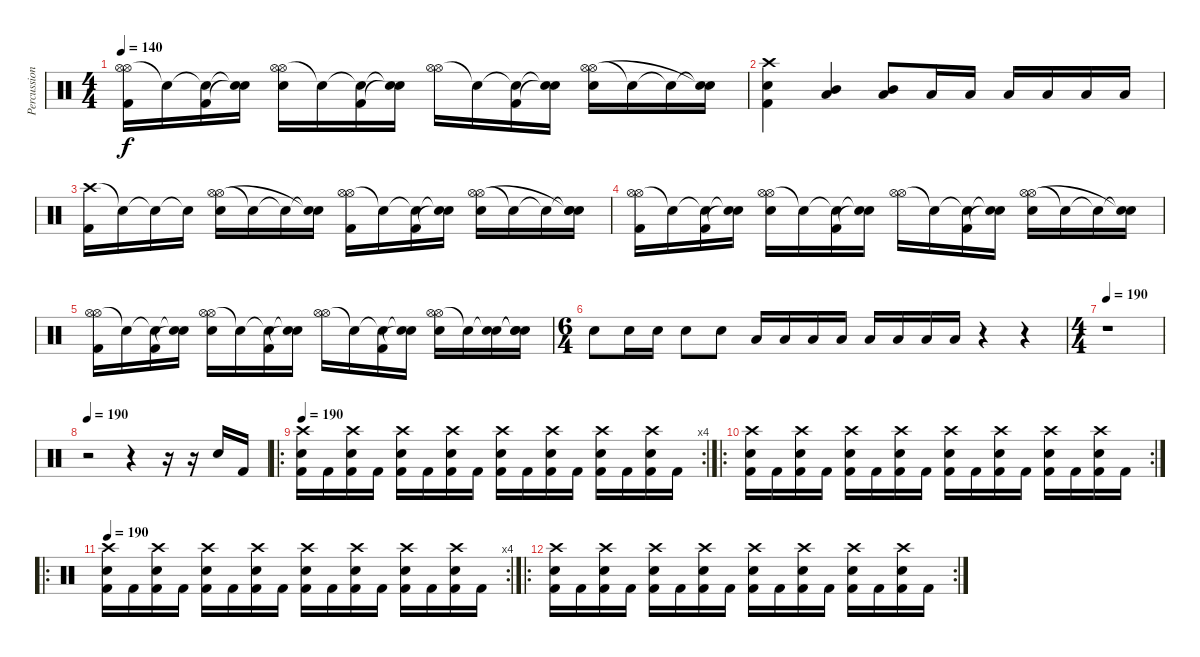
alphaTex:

\track ("Percussion" "Percussion") {instrument percussion}
\staff {score}
\articulation defaults
\ts (4 4)
\tempo 140
\clef neutral
\ks c
("Hi-Hat (open)" "Hi-Hat (open)" "Kick (hit) 2").16{dy f} "Snare (hit)"{t}.16 ("Snare (hit)"{t} "Kick (hit) 2").16 ("Snare (hit)"{t} "Snare (hit)"{t}).16 ("Hi-Hat (open)" "Hi-Hat (open)" "Electric Snare (hit)").16 "Snare (hit)"{t}.16 ("Snare (hit)"{t} "Kick (hit) 2").16 ("Snare (hit)"{t} "Snare (hit)"{t}).16 ("Hi-Hat (open)" "Hi-Hat (open)").16 "Snare (hit)"{t}.16 ("Snare (hit)"{t} "Kick (hit) 2").16 ("Snare (hit)"{t} "Snare (hit)"{t}).16 ("Hi-Hat (open)" "Hi-Hat (open)" "Electric Snare (hit)").16 "Snare (hit)"{t}.16 "Snare (hit)"{t}.16 ("Snare (hit)"{t} "Snare (hit)"{t}).16 |
("Crash high (hit)" "Electric Snare (hit)" "Kick (hit) 2").4 ("Mid Tom (hit)" "Low Tom (hit)").4 ("Mid Tom (hit)" "Low Tom (hit)").8 "Low Floor Tom (hit)".16 "Low Floor Tom (hit)".16 "Low Floor Tom (hit)".16 "Low Floor Tom (hit)".16 "Low Floor Tom (hit)".16 "Low Floor Tom (hit)".16 |
("Crash high (hit)" "Kick (hit) 2").16 "Snare (hit)"{t}.16 "Snare (hit)"{t}.16 "Snare (hit)"{t}.16 ("Hi-Hat (open)" "Hi-Hat (open)" "Electric Snare (hit)").16 "Snare (hit)"{t}.16 "Snare (hit)"{t}.16 ("Snare (hit)"{t} "Snare (hit)"{t}).16 ("Hi-Hat (open)" "Hi-Hat (open)" "Kick (hit) 2").16 "Snare (hit)"{t}.16 ("Snare (hit)"{t} "Kick (hit) 2").16 ("Snare (hit)"{t} "Snare (hit)"{t}).16 ("Hi-Hat (open)" "Hi-Hat (open)" "Electric Snare (hit)").16 "Snare (hit)"{t}.16 "Snare (hit)"{t}.16 ("Snare (hit)"{t} "Snare (hit)"{t} "Electric Snare (hit)").16 |
("Hi-Hat (open)" "Hi-Hat (open)" "Kick (hit) 2").16 "Snare (hit)"{t}.16 ("Snare (hit)"{t} "Kick (hit) 2").16 ("Snare (hit)"{t} "Snare (hit)"{t}).16 ("Hi-Hat (open)" "Hi-Hat (open)" "Electric Snare (hit)").16 "Snare (hit)"{t}.16 ("Snare (hit)"{t} "Kick (hit) 2").16 ("Snare (hit)"{t} "Snare (hit)"{t}).16 ("Hi-Hat (open)" "Hi-Hat (open)").16 "Snare (hit)"{t}.16 ("Snare (hit)"{t} "Kick (hit) 2").16 ("Snare (hit)"{t} "Snare (hit)"{t}).16 ("Hi-Hat (open)" "Hi-Hat (open)" "Electric Snare (hit)").16 "Snare (hit)"{t}.16 "Snare (hit)"{t}.16 ("Snare (hit)"{t} "Snare (hit)"{t}).16 |
("Hi-Hat (open)" "Hi-Hat (open)" "Kick (hit) 2").16 "Snare (hit)"{t}.16 ("Snare (hit)"{t} "Kick (hit) 2").16 ("Snare (hit)"{t} "Snare (hit)"{t}).16 ("Hi-Hat (open)" "Hi-Hat (open)" "Electric Snare (hit)").16 "Snare (hit)"{t}.16 ("Snare (hit)"{t} "Kick (hit) 2").16 ("Snare (hit)"{t} "Snare (hit)"{t}).16 ("Hi-Hat (open)" "Hi-Hat (open)").16 "Snare (hit)"{t}.16 ("Snare (hit)"{t} "Kick (hit) 2").16 ("Snare (hit)"{t} "Snare (hit)"{t}).16 ("Hi-Hat (open)" "Hi-Hat (open)" "Electric Snare (hit)").16 "Snare (hit)"{t}.16 ("Snare (hit)"{t} "Electric Snare (hit)").16 ("Snare (hit)"{t} "Snare (hit)"{t} "Electric Snare (hit)").16 |
\ts (6 4)
"Electric Snare (hit)".8 "Electric Snare (hit)".16 "Electric Snare (hit)".16 "Electric Snare (hit)".8 "Electric Snare (hit)".8 "Low Tom (hit)".16 "Low Tom (hit)".16 "Low Tom (hit)".16 "Low Tom (hit)".16 "Low Floor Tom (hit)".16 "Low Floor Tom (hit)".16 "Low Floor Tom (hit)".16 "Low Floor Tom (hit)".16 r.4 r.4 |
\ts (4 4)
\tempo 190
r.1 |
\tempo 190
r.2 r.4 r.16 r.16 "Snare (hit) 2".16 "Kick (hit) 2".16 |
\ro
\rc 4
\tempo 190
("Crash high (hit)" "Electric Snare (hit)" "Kick (hit) 2").16 "Kick (hit) 2".16 ("Crash high (hit)" "Electric Snare (hit)" "Kick (hit) 2").16 "Kick (hit) 2".16 ("Crash high (hit)" "Electric Snare (hit)" "Kick (hit) 2").16 "Kick (hit) 2".16 ("Crash high (hit)" "Electric Snare (hit)" "Kick (hit) 2").16 "Kick (hit) 2".16 ("Crash high (hit)" "Electric Snare (hit)" "Kick (hit) 2").16 "Kick (hit) 2".16 ("Crash high (hit)" "Electric Snare (hit)" "Kick (hit) 2").16 "Kick (hit) 2".16 ("Crash high (hit)" "Electric Snare (hit)" "Kick (hit) 2").16 "Kick (hit) 2".16 ("Crash high (hit)" "Electric Snare (hit)" "Kick (hit) 2").16 "Kick (hit) 2".16 |
\ro
\rc 2
("Crash high (hit)" "Electric Snare (hit)" "Kick (hit) 2").16 "Kick (hit) 2".16 ("Crash high (hit)" "Electric Snare (hit)" "Kick (hit) 2").16 "Kick (hit) 2".16 ("Crash high (hit)" "Electric Snare (hit)" "Kick (hit) 2").16 "Kick (hit) 2".16 ("Crash high (hit)" "Electric Snare (hit)" "Kick (hit) 2").16 "Kick (hit) 2".16 ("Crash high (hit)" "Electric Snare (hit)" "Kick (hit) 2").16 "Kick (hit) 2".16 ("Crash high (hit)" "Electric Snare (hit)" "Kick (hit) 2").16 "Kick (hit) 2".16 ("Crash high (hit)" "Electric Snare (hit)" "Kick (hit) 2").16 "Kick (hit) 2".16 ("Crash high (hit)" "Electric Snare (hit)" "Kick (hit) 2").16 "Kick (hit) 2".16 |
\ro
\rc 4
\tempo 190
("Crash high (hit)" "Electric Snare (hit)" "Kick (hit) 2").16 "Kick (hit) 2".16 ("Crash high (hit)" "Electric Snare (hit)" "Kick (hit) 2").16 "Kick (hit) 2".16 ("Crash high (hit)" "Electric Snare (hit)" "Kick (hit) 2").16 "Kick (hit) 2".16 ("Crash high (hit)" "Electric Snare (hit)" "Kick (hit) 2").16 "Kick (hit) 2".16 ("Crash high (hit)" "Electric Snare (hit)" "Kick (hit) 2").16 "Kick (hit) 2".16 ("Crash high (hit)" "Electric Snare (hit)" "Kick (hit) 2").16 "Kick (hit) 2".16 ("Crash high (hit)" "Electric Snare (hit)" "Kick (hit) 2").16 "Kick (hit) 2".16 ("Crash high (hit)" "Electric Snare (hit)" "Kick (hit) 2").16 "Kick (hit) 2".16 |
\ro
\rc 2
("Crash high (hit)" "Electric Snare (hit)" "Kick (hit) 2").16 "Kick (hit) 2".16 ("Crash high (hit)" "Electric Snare (hit)" "Kick (hit) 2").16 "Kick (hit) 2".16 ("Crash high (hit)" "Electric Snare (hit)" "Kick (hit) 2").16 "Kick (hit) 2".16 ("Crash high (hit)" "Electric Snare (hit)" "Kick (hit) 2").16 "Kick (hit) 2".16 ("Crash high (hit)" "Electric Snare (hit)" "Kick (hit) 2").16 "Kick (hit) 2".16 ("Crash high (hit)" "Electric Snare (hit)" "Kick (hit) 2").16 "Kick (hit) 2".16 ("Crash high (hit)" "Electric Snare (hit)" "Kick (hit) 2").16 "Kick (hit) 2".16 ("Crash high (hit)" "Electric Snare (hit)" "Kick (hit) 2").16 "Kick (hit) 2".16
